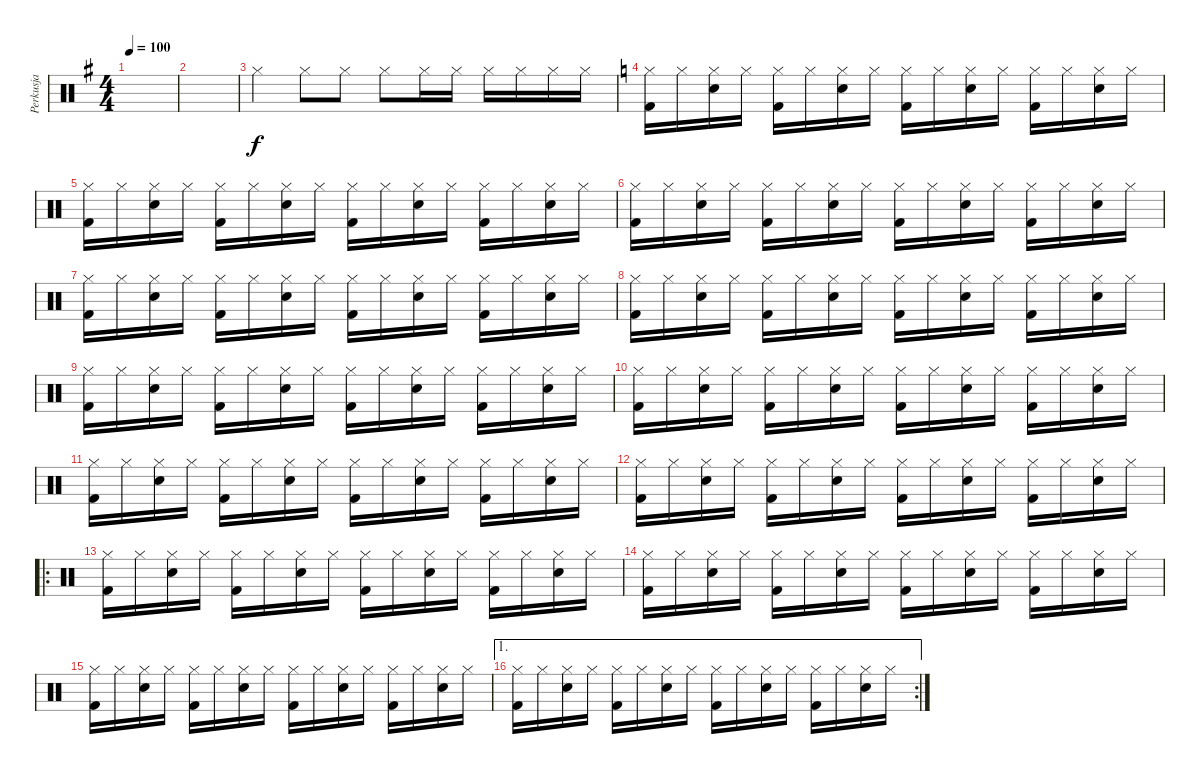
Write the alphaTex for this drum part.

\track ("Perkusja" "Perkusja") {instrument percussion}
\staff {score}
\articulation defaults
\ts (4 4)
\tempo 100
\clef neutral
\ks g
|
|
"Hi-Hat (closed)".4 "Hi-Hat (closed)".8 "Hi-Hat (closed)".8 "Hi-Hat (closed)".8 "Hi-Hat (closed)".16 "Hi-Hat (closed)".16 "Hi-Hat (closed)".16 "Hi-Hat (closed)".16 "Hi-Hat (closed)".16 "Hi-Hat (closed)".16 |
\ks c
("Hi-Hat (closed)" "Kick (hit) 2").16 "Hi-Hat (closed)".16 ("Snare (hit) 2" "Hi-Hat (closed)").16 "Hi-Hat (closed)".16 ("Hi-Hat (closed)" "Kick (hit) 2").16 "Hi-Hat (closed)".16 ("Snare (hit) 2" "Hi-Hat (closed)").16 "Hi-Hat (closed)".16 ("Hi-Hat (closed)" "Kick (hit) 2").16 "Hi-Hat (closed)".16 ("Snare (hit) 2" "Hi-Hat (closed)").16 "Hi-Hat (closed)".16 ("Hi-Hat (closed)" "Kick (hit) 2").16 "Hi-Hat (closed)".16 ("Snare (hit) 2" "Hi-Hat (closed)").16 "Hi-Hat (closed)".16 |
("Hi-Hat (closed)" "Kick (hit) 2").16 "Hi-Hat (closed)".16 ("Snare (hit) 2" "Hi-Hat (closed)").16 "Hi-Hat (closed)".16 ("Hi-Hat (closed)" "Kick (hit) 2").16 "Hi-Hat (closed)".16 ("Snare (hit) 2" "Hi-Hat (closed)").16 "Hi-Hat (closed)".16 ("Hi-Hat (closed)" "Kick (hit) 2").16 "Hi-Hat (closed)".16 ("Snare (hit) 2" "Hi-Hat (closed)").16 "Hi-Hat (closed)".16 ("Hi-Hat (closed)" "Kick (hit) 2").16 "Hi-Hat (closed)".16 ("Snare (hit) 2" "Hi-Hat (closed)").16 "Hi-Hat (closed)".16 |
("Hi-Hat (closed)" "Kick (hit) 2").16 "Hi-Hat (closed)".16 ("Snare (hit) 2" "Hi-Hat (closed)").16 "Hi-Hat (closed)".16 ("Hi-Hat (closed)" "Kick (hit) 2").16 "Hi-Hat (closed)".16 ("Snare (hit) 2" "Hi-Hat (closed)").16 "Hi-Hat (closed)".16 ("Hi-Hat (closed)" "Kick (hit) 2").16 "Hi-Hat (closed)".16 ("Snare (hit) 2" "Hi-Hat (closed)").16 "Hi-Hat (closed)".16 ("Hi-Hat (closed)" "Kick (hit) 2").16 "Hi-Hat (closed)".16 ("Snare (hit) 2" "Hi-Hat (closed)").16 "Hi-Hat (closed)".16 |
("Hi-Hat (closed)" "Kick (hit) 2").16 "Hi-Hat (closed)".16 ("Snare (hit) 2" "Hi-Hat (closed)").16 "Hi-Hat (closed)".16 ("Hi-Hat (closed)" "Kick (hit) 2").16 "Hi-Hat (closed)".16 ("Snare (hit) 2" "Hi-Hat (closed)").16 "Hi-Hat (closed)".16 ("Hi-Hat (closed)" "Kick (hit) 2").16 "Hi-Hat (closed)".16 ("Snare (hit) 2" "Hi-Hat (closed)").16 "Hi-Hat (closed)".16 ("Hi-Hat (closed)" "Kick (hit) 2").16 "Hi-Hat (closed)".16 ("Snare (hit) 2" "Hi-Hat (closed)").16 "Hi-Hat (closed)".16 |
("Hi-Hat (closed)" "Kick (hit) 2").16 "Hi-Hat (closed)".16 ("Snare (hit) 2" "Hi-Hat (closed)").16 "Hi-Hat (closed)".16 ("Hi-Hat (closed)" "Kick (hit) 2").16 "Hi-Hat (closed)".16 ("Snare (hit) 2" "Hi-Hat (closed)").16 "Hi-Hat (closed)".16 ("Hi-Hat (closed)" "Kick (hit) 2").16 "Hi-Hat (closed)".16 ("Snare (hit) 2" "Hi-Hat (closed)").16 "Hi-Hat (closed)".16 ("Hi-Hat (closed)" "Kick (hit) 2").16 "Hi-Hat (closed)".16 ("Snare (hit) 2" "Hi-Hat (closed)").16 "Hi-Hat (closed)".16 |
("Hi-Hat (closed)" "Kick (hit) 2").16 "Hi-Hat (closed)".16 ("Snare (hit) 2" "Hi-Hat (closed)").16 "Hi-Hat (closed)".16 ("Hi-Hat (closed)" "Kick (hit) 2").16 "Hi-Hat (closed)".16 ("Snare (hit) 2" "Hi-Hat (closed)").16 "Hi-Hat (closed)".16 ("Hi-Hat (closed)" "Kick (hit) 2").16 "Hi-Hat (closed)".16 ("Snare (hit) 2" "Hi-Hat (closed)").16 "Hi-Hat (closed)".16 ("Hi-Hat (closed)" "Kick (hit) 2").16 "Hi-Hat (closed)".16 ("Snare (hit) 2" "Hi-Hat (closed)").16 "Hi-Hat (closed)".16 |
("Hi-Hat (closed)" "Kick (hit) 2").16 "Hi-Hat (closed)".16 ("Snare (hit) 2" "Hi-Hat (closed)").16 "Hi-Hat (closed)".16 ("Hi-Hat (closed)" "Kick (hit) 2").16 "Hi-Hat (closed)".16 ("Snare (hit) 2" "Hi-Hat (closed)").16 "Hi-Hat (closed)".16 ("Hi-Hat (closed)" "Kick (hit) 2").16 "Hi-Hat (closed)".16 ("Snare (hit) 2" "Hi-Hat (closed)").16 "Hi-Hat (closed)".16 ("Hi-Hat (closed)" "Kick (hit) 2").16 "Hi-Hat (closed)".16 ("Snare (hit) 2" "Hi-Hat (closed)").16 "Hi-Hat (closed)".16 |
("Hi-Hat (closed)" "Kick (hit) 2").16 "Hi-Hat (closed)".16 ("Snare (hit) 2" "Hi-Hat (closed)").16 "Hi-Hat (closed)".16 ("Hi-Hat (closed)" "Kick (hit) 2").16 "Hi-Hat (closed)".16 ("Snare (hit) 2" "Hi-Hat (closed)").16 "Hi-Hat (closed)".16 ("Hi-Hat (closed)" "Kick (hit) 2").16 "Hi-Hat (closed)".16 ("Snare (hit) 2" "Hi-Hat (closed)").16 "Hi-Hat (closed)".16 ("Hi-Hat (closed)" "Kick (hit) 2").16 "Hi-Hat (closed)".16 ("Snare (hit) 2" "Hi-Hat (closed)").16 "Hi-Hat (closed)".16 |
("Hi-Hat (closed)" "Kick (hit) 2").16 "Hi-Hat (closed)".16 ("Snare (hit) 2" "Hi-Hat (closed)").16 "Hi-Hat (closed)".16 ("Hi-Hat (closed)" "Kick (hit) 2").16 "Hi-Hat (closed)".16 ("Snare (hit) 2" "Hi-Hat (closed)").16 "Hi-Hat (closed)".16 ("Hi-Hat (closed)" "Kick (hit) 2").16 "Hi-Hat (closed)".16 ("Snare (hit) 2" "Hi-Hat (closed)").16 "Hi-Hat (closed)".16 ("Hi-Hat (closed)" "Kick (hit) 2").16 "Hi-Hat (closed)".16 ("Snare (hit) 2" "Hi-Hat (closed)").16 "Hi-Hat (closed)".16 |
\ro
("Hi-Hat (closed)" "Kick (hit) 2").16 "Hi-Hat (closed)".16 ("Snare (hit) 2" "Hi-Hat (closed)").16 "Hi-Hat (closed)".16 ("Hi-Hat (closed)" "Kick (hit) 2").16 "Hi-Hat (closed)".16 ("Snare (hit) 2" "Hi-Hat (closed)").16 "Hi-Hat (closed)".16 ("Hi-Hat (closed)" "Kick (hit) 2").16 "Hi-Hat (closed)".16 ("Snare (hit) 2" "Hi-Hat (closed)").16 "Hi-Hat (closed)".16 ("Hi-Hat (closed)" "Kick (hit) 2").16 "Hi-Hat (closed)".16 ("Snare (hit) 2" "Hi-Hat (closed)").16 "Hi-Hat (closed)".16 |
("Hi-Hat (closed)" "Kick (hit) 2").16 "Hi-Hat (closed)".16 ("Snare (hit) 2" "Hi-Hat (closed)").16 "Hi-Hat (closed)".16 ("Hi-Hat (closed)" "Kick (hit) 2").16 "Hi-Hat (closed)".16 ("Snare (hit) 2" "Hi-Hat (closed)").16 "Hi-Hat (closed)".16 ("Hi-Hat (closed)" "Kick (hit) 2").16 "Hi-Hat (closed)".16 ("Snare (hit) 2" "Hi-Hat (closed)").16 "Hi-Hat (closed)".16 ("Hi-Hat (closed)" "Kick (hit) 2").16 "Hi-Hat (closed)".16 ("Snare (hit) 2" "Hi-Hat (closed)").16 "Hi-Hat (closed)".16 |
("Hi-Hat (closed)" "Kick (hit) 2").16 "Hi-Hat (closed)".16 ("Snare (hit) 2" "Hi-Hat (closed)").16 "Hi-Hat (closed)".16 ("Hi-Hat (closed)" "Kick (hit) 2").16 "Hi-Hat (closed)".16 ("Snare (hit) 2" "Hi-Hat (closed)").16 "Hi-Hat (closed)".16 ("Hi-Hat (closed)" "Kick (hit) 2").16 "Hi-Hat (closed)".16 ("Snare (hit) 2" "Hi-Hat (closed)").16 "Hi-Hat (closed)".16 ("Hi-Hat (closed)" "Kick (hit) 2").16 "Hi-Hat (closed)".16 ("Snare (hit) 2" "Hi-Hat (closed)").16 "Hi-Hat (closed)".16 |
\ae 1
\rc 2
("Hi-Hat (closed)" "Kick (hit) 2").16 "Hi-Hat (closed)".16 ("Snare (hit) 2" "Hi-Hat (closed)").16 "Hi-Hat (closed)".16 ("Hi-Hat (closed)" "Kick (hit) 2").16 "Hi-Hat (closed)".16 ("Snare (hit) 2" "Hi-Hat (closed)").16 "Hi-Hat (closed)".16 ("Hi-Hat (closed)" "Kick (hit) 2").16 "Hi-Hat (closed)".16 ("Snare (hit) 2" "Hi-Hat (closed)").16 "Hi-Hat (closed)".16 ("Hi-Hat (closed)" "Kick (hit) 2").16 "Hi-Hat (closed)".16 ("Snare (hit) 2" "Hi-Hat (closed)").16 "Hi-Hat (closed)".16
